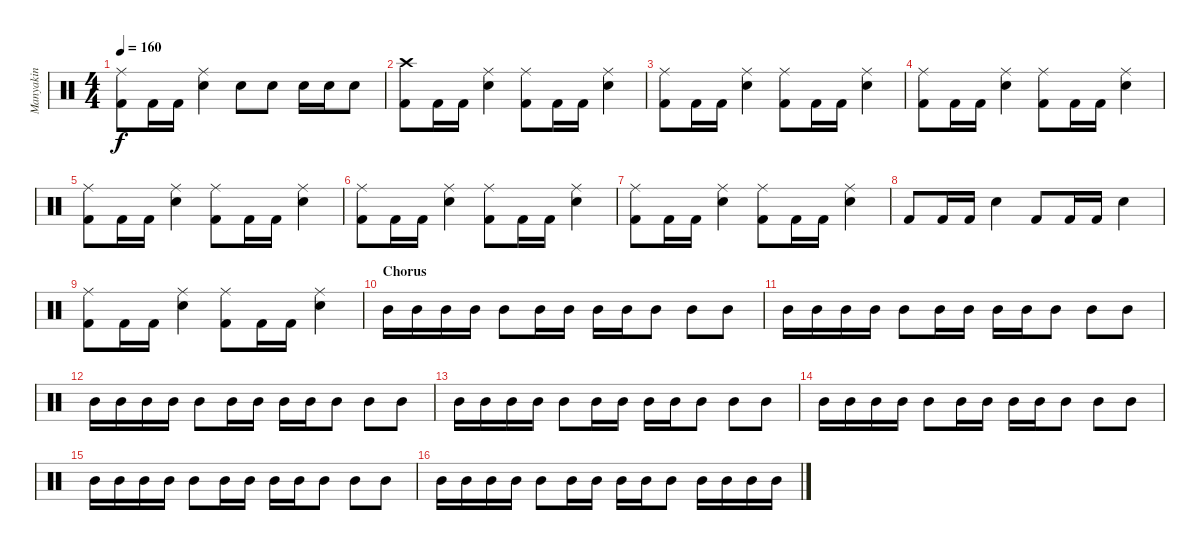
\track ("Manyakin" "Manyakin") {instrument percussion}
\staff {score}
\articulation defaults
\ts (4 4)
\tempo 160
\clef neutral
\ks c
("Kick (hit) 2" "Ride (middle)").8{dy f} "Kick (hit) 2".16 "Kick (hit) 2".16 ("Snare (hit) 2" "Ride (middle)").4 "Snare (hit) 2".8 "Snare (hit) 2".8 "Snare (hit) 2".16 "Snare (hit) 2".16 "Snare (hit) 2".8 |
("Kick (hit) 2" "Crash high (hit)").8 "Kick (hit) 2".16 "Kick (hit) 2".16 ("Snare (hit) 2" "Ride (middle)").4 ("Kick (hit) 2" "Ride (middle)").8 "Kick (hit) 2".16 "Kick (hit) 2".16 ("Snare (hit) 2" "Ride (middle)").4 |
("Kick (hit) 2" "Ride (middle)").8 "Kick (hit) 2".16 "Kick (hit) 2".16 ("Snare (hit) 2" "Ride (middle)").4 ("Kick (hit) 2" "Ride (middle)").8 "Kick (hit) 2".16 "Kick (hit) 2".16 ("Snare (hit) 2" "Ride (middle)").4 |
("Kick (hit) 2" "Ride (middle)").8 "Kick (hit) 2".16 "Kick (hit) 2".16 ("Snare (hit) 2" "Ride (middle)").4 ("Kick (hit) 2" "Ride (middle)").8 "Kick (hit) 2".16 "Kick (hit) 2".16 ("Snare (hit) 2" "Ride (middle)").4 |
("Kick (hit) 2" "Ride (middle)").8 "Kick (hit) 2".16 "Kick (hit) 2".16 ("Snare (hit) 2" "Ride (middle)").4 ("Kick (hit) 2" "Ride (middle)").8 "Kick (hit) 2".16 "Kick (hit) 2".16 ("Snare (hit) 2" "Ride (middle)").4 |
("Kick (hit) 2" "Ride (middle)").8 "Kick (hit) 2".16 "Kick (hit) 2".16 ("Snare (hit) 2" "Ride (middle)").4 ("Kick (hit) 2" "Ride (middle)").8 "Kick (hit) 2".16 "Kick (hit) 2".16 ("Snare (hit) 2" "Ride (middle)").4 |
("Kick (hit) 2" "Ride (middle)").8 "Kick (hit) 2".16 "Kick (hit) 2".16 ("Snare (hit) 2" "Ride (middle)").4 ("Kick (hit) 2" "Ride (middle)").8 "Kick (hit) 2".16 "Kick (hit) 2".16 ("Snare (hit) 2" "Ride (middle)").4 |
"Kick (hit) 2".8 "Kick (hit) 2".16 "Kick (hit) 2".16 "Snare (hit) 2".4 "Kick (hit) 2".8 "Kick (hit) 2".16 "Kick (hit) 2".16 "Snare (hit) 2".4 |
("Kick (hit) 2" "Ride (middle)").8 "Kick (hit) 2".16 "Kick (hit) 2".16 ("Snare (hit) 2" "Ride (middle)").4 ("Kick (hit) 2" "Ride (middle)").8 "Kick (hit) 2".16 "Kick (hit) 2".16 ("Snare (hit) 2" "Ride (middle)").4 |
\section ("" "Chorus")
"Mid Tom (hit)".16 "Mid Tom (hit)".16 "Mid Tom (hit)".16 "Mid Tom (hit)".16 "Mid Tom (hit)".8 "Mid Tom (hit)".16 "Mid Tom (hit)".16 "Mid Tom (hit)".16 "Mid Tom (hit)".16 "Mid Tom (hit)".8 "Mid Tom (hit)".8 "Mid Tom (hit)".8 |
"Mid Tom (hit)".16 "Mid Tom (hit)".16 "Mid Tom (hit)".16 "Mid Tom (hit)".16 "Mid Tom (hit)".8 "Mid Tom (hit)".16 "Mid Tom (hit)".16 "Mid Tom (hit)".16 "Mid Tom (hit)".16 "Mid Tom (hit)".8 "Mid Tom (hit)".8 "Mid Tom (hit)".8 |
"Mid Tom (hit)".16 "Mid Tom (hit)".16 "Mid Tom (hit)".16 "Mid Tom (hit)".16 "Mid Tom (hit)".8 "Mid Tom (hit)".16 "Mid Tom (hit)".16 "Mid Tom (hit)".16 "Mid Tom (hit)".16 "Mid Tom (hit)".8 "Mid Tom (hit)".8 "Mid Tom (hit)".8 |
"Mid Tom (hit)".16 "Mid Tom (hit)".16 "Mid Tom (hit)".16 "Mid Tom (hit)".16 "Mid Tom (hit)".8 "Mid Tom (hit)".16 "Mid Tom (hit)".16 "Mid Tom (hit)".16 "Mid Tom (hit)".16 "Mid Tom (hit)".8 "Mid Tom (hit)".8 "Mid Tom (hit)".8 |
"Mid Tom (hit)".16 "Mid Tom (hit)".16 "Mid Tom (hit)".16 "Mid Tom (hit)".16 "Mid Tom (hit)".8 "Mid Tom (hit)".16 "Mid Tom (hit)".16 "Mid Tom (hit)".16 "Mid Tom (hit)".16 "Mid Tom (hit)".8 "Mid Tom (hit)".8 "Mid Tom (hit)".8 |
"Mid Tom (hit)".16 "Mid Tom (hit)".16 "Mid Tom (hit)".16 "Mid Tom (hit)".16 "Mid Tom (hit)".8 "Mid Tom (hit)".16 "Mid Tom (hit)".16 "Mid Tom (hit)".16 "Mid Tom (hit)".16 "Mid Tom (hit)".8 "Mid Tom (hit)".8 "Mid Tom (hit)".8 |
"Mid Tom (hit)".16 "Mid Tom (hit)".16 "Mid Tom (hit)".16 "Mid Tom (hit)".16 "Mid Tom (hit)".8 "Mid Tom (hit)".16 "Mid Tom (hit)".16 "Mid Tom (hit)".16 "Mid Tom (hit)".16 "Mid Tom (hit)".8 "Mid Tom (hit)".16 "Mid Tom (hit)".16 "Mid Tom (hit)".16 "Mid Tom (hit)".16
